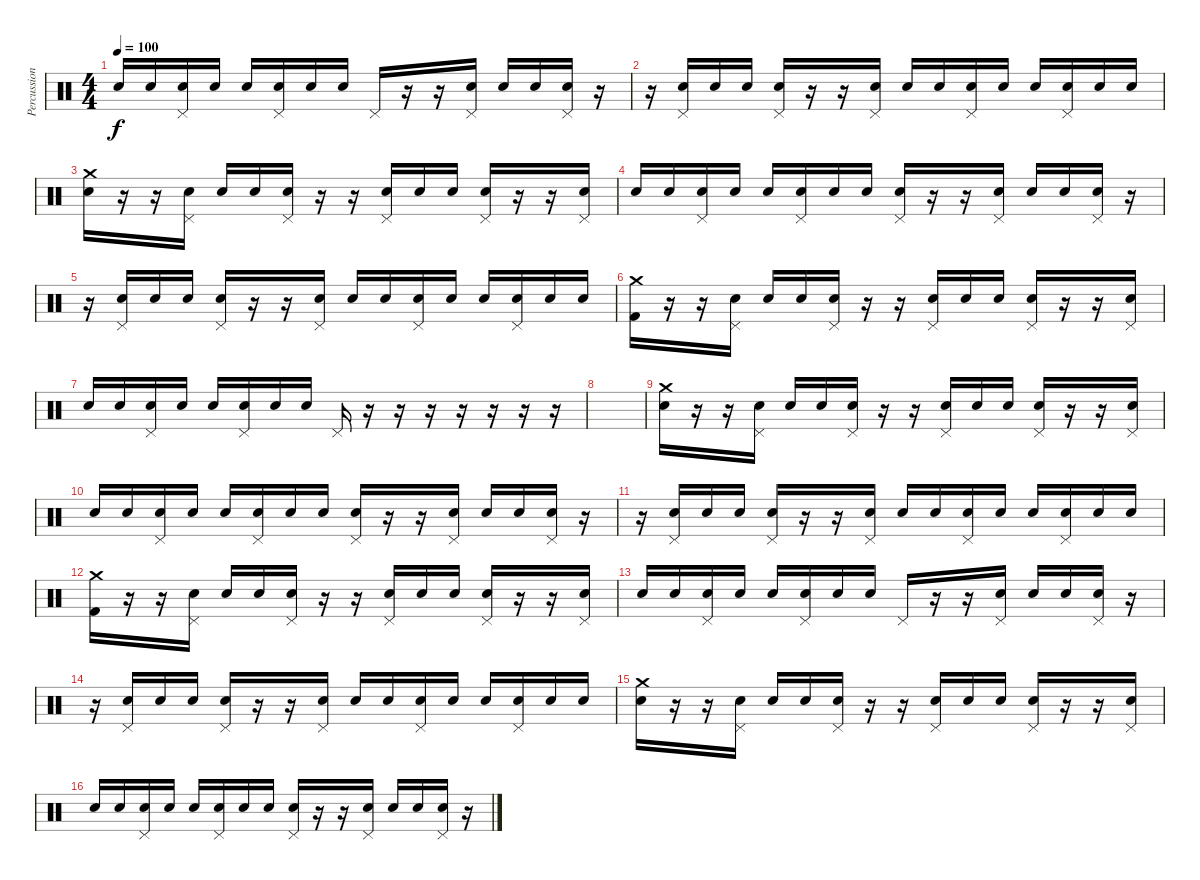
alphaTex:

\track ("Percussion" "Percussion") {instrument percussion}
\staff {score}
\articulation defaults
\ts (4 4)
\tempo 100
\clef neutral
\ks c "Snare (hit) 2".16{dy f} "Snare (hit) 2".16
("Pedal Hi-Hat (hit)" "Snare (hit) 2").16 "Snare (hit) 2".16 "Snare (hit) 2".16 ("Pedal Hi-Hat (hit)" "Snare (hit) 2").16 "Snare (hit) 2".16 "Snare (hit) 2".16 "Pedal Hi-Hat (hit)".16 r.16 r.16 ("Pedal Hi-Hat (hit)" "Snare (hit) 2").16 "Snare (hit) 2".16 "Snare (hit) 2".16 ("Pedal Hi-Hat (hit)" "Snare (hit) 2").16 r.16 |
r.16 ("Pedal Hi-Hat (hit)" "Snare (hit) 2").16 "Snare (hit) 2".16 "Snare (hit) 2".16 ("Pedal Hi-Hat (hit)" "Snare (hit) 2").16 r.16 r.16 ("Pedal Hi-Hat (hit)" "Snare (hit) 2").16 "Snare (hit) 2".16 "Snare (hit) 2".16 ("Pedal Hi-Hat (hit)" "Snare (hit) 2").16 "Snare (hit) 2".16 "Snare (hit) 2".16 ("Pedal Hi-Hat (hit)" "Snare (hit) 2").16 "Snare (hit) 2".16 "Snare (hit) 2".16 |
("Crash medium (hit)" "Snare (hit) 2").16 r.16 r.16 ("Pedal Hi-Hat (hit)" "Snare (hit) 2").16 "Snare (hit) 2".16 "Snare (hit) 2".16 ("Pedal Hi-Hat (hit)" "Snare (hit) 2").16 r.16 r.16 ("Pedal Hi-Hat (hit)" "Snare (hit) 2").16 "Snare (hit) 2".16 "Snare (hit) 2".16 ("Pedal Hi-Hat (hit)" "Snare (hit) 2").16 r.16 r.16 ("Pedal Hi-Hat (hit)" "Snare (hit) 2").16 |
"Snare (hit) 2".16 "Snare (hit) 2".16 ("Pedal Hi-Hat (hit)" "Snare (hit) 2").16 "Snare (hit) 2".16 "Snare (hit) 2".16 ("Pedal Hi-Hat (hit)" "Snare (hit) 2").16 "Snare (hit) 2".16 "Snare (hit) 2".16 ("Pedal Hi-Hat (hit)" "Snare (hit) 2").16 r.16 r.16 ("Pedal Hi-Hat (hit)" "Snare (hit) 2").16 "Snare (hit) 2".16 "Snare (hit) 2".16 ("Pedal Hi-Hat (hit)" "Snare (hit) 2").16 r.16 |
r.16 ("Pedal Hi-Hat (hit)" "Snare (hit) 2").16 "Snare (hit) 2".16 "Snare (hit) 2".16 ("Pedal Hi-Hat (hit)" "Snare (hit) 2").16 r.16 r.16 ("Pedal Hi-Hat (hit)" "Snare (hit) 2").16 "Snare (hit) 2".16 "Snare (hit) 2".16 ("Pedal Hi-Hat (hit)" "Snare (hit) 2").16 "Snare (hit) 2".16 "Snare (hit) 2".16 ("Pedal Hi-Hat (hit)" "Snare (hit) 2").16 "Snare (hit) 2".16 "Snare (hit) 2".16 |
("Crash medium (hit)" "Kick (hit) 2").16 r.16 r.16 ("Pedal Hi-Hat (hit)" "Snare (hit) 2").16 "Snare (hit) 2".16 "Snare (hit) 2".16 ("Pedal Hi-Hat (hit)" "Snare (hit) 2").16 r.16 r.16 ("Pedal Hi-Hat (hit)" "Snare (hit) 2").16 "Snare (hit) 2".16 "Snare (hit) 2".16 ("Pedal Hi-Hat (hit)" "Snare (hit) 2").16 r.16 r.16 ("Pedal Hi-Hat (hit)" "Snare (hit) 2").16 |
"Snare (hit) 2".16 "Snare (hit) 2".16 ("Pedal Hi-Hat (hit)" "Snare (hit) 2").16 "Snare (hit) 2".16 "Snare (hit) 2".16 ("Pedal Hi-Hat (hit)" "Snare (hit) 2").16 "Snare (hit) 2".16 "Snare (hit) 2".16 "Pedal Hi-Hat (hit)".16 r.16 r.16 r.16 r.16 r.16 r.16 r.16 |
|
("Crash medium (hit)" "Snare (hit) 2").16 r.16 r.16 ("Pedal Hi-Hat (hit)" "Snare (hit) 2").16 "Snare (hit) 2".16 "Snare (hit) 2".16 ("Pedal Hi-Hat (hit)" "Snare (hit) 2").16 r.16 r.16 ("Pedal Hi-Hat (hit)" "Snare (hit) 2").16 "Snare (hit) 2".16 "Snare (hit) 2".16 ("Pedal Hi-Hat (hit)" "Snare (hit) 2").16 r.16 r.16 ("Pedal Hi-Hat (hit)" "Snare (hit) 2").16 |
"Snare (hit) 2".16 "Snare (hit) 2".16 ("Pedal Hi-Hat (hit)" "Snare (hit) 2").16 "Snare (hit) 2".16 "Snare (hit) 2".16 ("Pedal Hi-Hat (hit)" "Snare (hit) 2").16 "Snare (hit) 2".16 "Snare (hit) 2".16 ("Pedal Hi-Hat (hit)" "Snare (hit) 2").16 r.16 r.16 ("Pedal Hi-Hat (hit)" "Snare (hit) 2").16 "Snare (hit) 2".16 "Snare (hit) 2".16 ("Pedal Hi-Hat (hit)" "Snare (hit) 2").16 r.16 |
r.16 ("Pedal Hi-Hat (hit)" "Snare (hit) 2").16 "Snare (hit) 2".16 "Snare (hit) 2".16 ("Pedal Hi-Hat (hit)" "Snare (hit) 2").16 r.16 r.16 ("Pedal Hi-Hat (hit)" "Snare (hit) 2").16 "Snare (hit) 2".16 "Snare (hit) 2".16 ("Pedal Hi-Hat (hit)" "Snare (hit) 2").16 "Snare (hit) 2".16 "Snare (hit) 2".16 ("Pedal Hi-Hat (hit)" "Snare (hit) 2").16 "Snare (hit) 2".16 "Snare (hit) 2".16 |
("Crash medium (hit)" "Kick (hit) 2").16 r.16 r.16 ("Pedal Hi-Hat (hit)" "Snare (hit) 2").16 "Snare (hit) 2".16 "Snare (hit) 2".16 ("Pedal Hi-Hat (hit)" "Snare (hit) 2").16 r.16 r.16 ("Pedal Hi-Hat (hit)" "Snare (hit) 2").16 "Snare (hit) 2".16 "Snare (hit) 2".16 ("Pedal Hi-Hat (hit)" "Snare (hit) 2").16 r.16 r.16 ("Pedal Hi-Hat (hit)" "Snare (hit) 2").16 |
"Snare (hit) 2".16 "Snare (hit) 2".16 ("Pedal Hi-Hat (hit)" "Snare (hit) 2").16 "Snare (hit) 2".16 "Snare (hit) 2".16 ("Pedal Hi-Hat (hit)" "Snare (hit) 2").16 "Snare (hit) 2".16 "Snare (hit) 2".16 "Pedal Hi-Hat (hit)".16 r.16 r.16 ("Pedal Hi-Hat (hit)" "Snare (hit) 2").16 "Snare (hit) 2".16 "Snare (hit) 2".16 ("Pedal Hi-Hat (hit)" "Snare (hit) 2").16 r.16 |
r.16 ("Pedal Hi-Hat (hit)" "Snare (hit) 2").16 "Snare (hit) 2".16 "Snare (hit) 2".16 ("Pedal Hi-Hat (hit)" "Snare (hit) 2").16 r.16 r.16 ("Pedal Hi-Hat (hit)" "Snare (hit) 2").16 "Snare (hit) 2".16 "Snare (hit) 2".16 ("Pedal Hi-Hat (hit)" "Snare (hit) 2").16 "Snare (hit) 2".16 "Snare (hit) 2".16 ("Pedal Hi-Hat (hit)" "Snare (hit) 2").16 "Snare (hit) 2".16 "Snare (hit) 2".16 |
("Crash medium (hit)" "Snare (hit) 2").16 r.16 r.16 ("Pedal Hi-Hat (hit)" "Snare (hit) 2").16 "Snare (hit) 2".16 "Snare (hit) 2".16 ("Pedal Hi-Hat (hit)" "Snare (hit) 2").16 r.16 r.16 ("Pedal Hi-Hat (hit)" "Snare (hit) 2").16 "Snare (hit) 2".16 "Snare (hit) 2".16 ("Pedal Hi-Hat (hit)" "Snare (hit) 2").16 r.16 r.16 ("Pedal Hi-Hat (hit)" "Snare (hit) 2").16 |
"Snare (hit) 2".16 "Snare (hit) 2".16 ("Pedal Hi-Hat (hit)" "Snare (hit) 2").16 "Snare (hit) 2".16 "Snare (hit) 2".16 ("Pedal Hi-Hat (hit)" "Snare (hit) 2").16 "Snare (hit) 2".16 "Snare (hit) 2".16 ("Pedal Hi-Hat (hit)" "Snare (hit) 2").16 r.16 r.16 ("Pedal Hi-Hat (hit)" "Snare (hit) 2").16 "Snare (hit) 2".16 "Snare (hit) 2".16 ("Pedal Hi-Hat (hit)" "Snare (hit) 2").16 r.16
